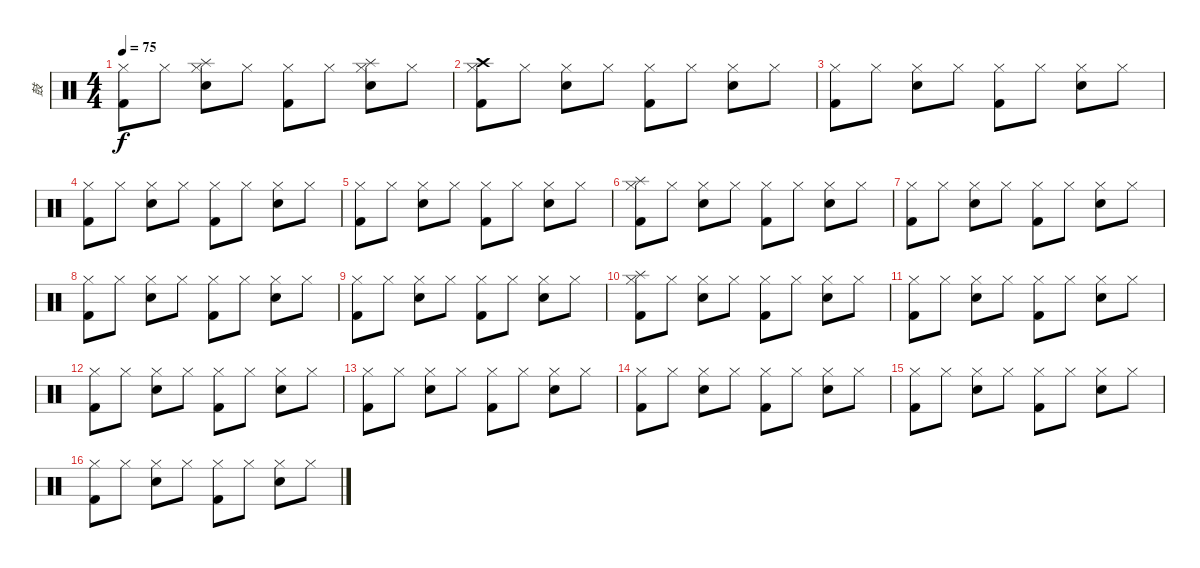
\track ("鼓" "鼓") {instrument percussion}
\staff {score}
\articulation defaults
\ts (4 4)
\tempo 75
\clef neutral
\ks c
("Hi-Hat (closed)" "Kick (hit) 2").8{dy f} "Hi-Hat (closed)".8 ("Hi-Hat (closed)" "Splash (hit)" "Electric Snare (hit)").8 "Hi-Hat (closed)".8 ("Hi-Hat (closed)" "Kick (hit) 2").8 "Hi-Hat (closed)".8 ("Hi-Hat (closed)" "Splash (hit)" "Electric Snare (hit)").8 "Hi-Hat (closed)".8 |
("Hi-Hat (closed)" "Crash high (hit)" "Kick (hit) 2").8 "Hi-Hat (closed)".8 ("Hi-Hat (closed)" "Electric Snare (hit)").8 "Hi-Hat (closed)".8 ("Hi-Hat (closed)" "Kick (hit) 2").8 "Hi-Hat (closed)".8 ("Hi-Hat (closed)" "Electric Snare (hit)").8 "Hi-Hat (closed)".8 |
("Hi-Hat (closed)" "Kick (hit) 2").8 "Hi-Hat (closed)".8 ("Hi-Hat (closed)" "Electric Snare (hit)").8 "Hi-Hat (closed)".8 ("Hi-Hat (closed)" "Kick (hit) 2").8 "Hi-Hat (closed)".8 ("Hi-Hat (closed)" "Electric Snare (hit)").8 "Hi-Hat (closed)".8 |
("Hi-Hat (closed)" "Kick (hit) 2").8 "Hi-Hat (closed)".8 ("Hi-Hat (closed)" "Electric Snare (hit)").8 "Hi-Hat (closed)".8 ("Hi-Hat (closed)" "Kick (hit) 2").8 "Hi-Hat (closed)".8 ("Hi-Hat (closed)" "Electric Snare (hit)").8 "Hi-Hat (closed)".8 |
("Hi-Hat (closed)" "Kick (hit) 2").8 "Hi-Hat (closed)".8 ("Hi-Hat (closed)" "Electric Snare (hit)").8 "Hi-Hat (closed)".8 ("Hi-Hat (closed)" "Kick (hit) 2").8 "Hi-Hat (closed)".8 ("Hi-Hat (closed)" "Electric Snare (hit)").8 "Hi-Hat (closed)".8 |
("Hi-Hat (closed)" "Splash (hit)" "Kick (hit) 2").8 "Hi-Hat (closed)".8 ("Hi-Hat (closed)" "Electric Snare (hit)").8 "Hi-Hat (closed)".8 ("Hi-Hat (closed)" "Kick (hit) 2").8 "Hi-Hat (closed)".8 ("Hi-Hat (closed)" "Electric Snare (hit)").8 "Hi-Hat (closed)".8 |
("Hi-Hat (closed)" "Kick (hit) 2").8 "Hi-Hat (closed)".8 ("Hi-Hat (closed)" "Electric Snare (hit)").8 "Hi-Hat (closed)".8 ("Hi-Hat (closed)" "Kick (hit) 2").8 "Hi-Hat (closed)".8 ("Hi-Hat (closed)" "Electric Snare (hit)").8 "Hi-Hat (closed)".8 |
("Hi-Hat (closed)" "Kick (hit) 2").8 "Hi-Hat (closed)".8 ("Hi-Hat (closed)" "Electric Snare (hit)").8 "Hi-Hat (closed)".8 ("Hi-Hat (closed)" "Kick (hit) 2").8 "Hi-Hat (closed)".8 ("Hi-Hat (closed)" "Electric Snare (hit)").8 "Hi-Hat (closed)".8 |
("Hi-Hat (closed)" "Kick (hit) 2").8 "Hi-Hat (closed)".8 ("Hi-Hat (closed)" "Electric Snare (hit)").8 "Hi-Hat (closed)".8 ("Hi-Hat (closed)" "Kick (hit) 2").8 "Hi-Hat (closed)".8 ("Hi-Hat (closed)" "Electric Snare (hit)").8 "Hi-Hat (closed)".8 |
("Hi-Hat (closed)" "Splash (hit)" "Kick (hit) 2").8 "Hi-Hat (closed)".8 ("Hi-Hat (closed)" "Electric Snare (hit)").8 "Hi-Hat (closed)".8 ("Hi-Hat (closed)" "Kick (hit) 2").8 "Hi-Hat (closed)".8 ("Hi-Hat (closed)" "Electric Snare (hit)").8 "Hi-Hat (closed)".8 |
("Hi-Hat (closed)" "Kick (hit) 2").8 "Hi-Hat (closed)".8 ("Hi-Hat (closed)" "Electric Snare (hit)").8 "Hi-Hat (closed)".8 ("Hi-Hat (closed)" "Kick (hit) 2").8 "Hi-Hat (closed)".8 ("Hi-Hat (closed)" "Electric Snare (hit)").8 "Hi-Hat (closed)".8 |
("Hi-Hat (closed)" "Kick (hit) 2").8 "Hi-Hat (closed)".8 ("Hi-Hat (closed)" "Electric Snare (hit)").8 "Hi-Hat (closed)".8 ("Hi-Hat (closed)" "Kick (hit) 2").8 "Hi-Hat (closed)".8 ("Hi-Hat (closed)" "Electric Snare (hit)").8 "Hi-Hat (closed)".8 |
("Hi-Hat (closed)" "Kick (hit) 2").8 "Hi-Hat (closed)".8 ("Hi-Hat (closed)" "Electric Snare (hit)").8 "Hi-Hat (closed)".8 ("Hi-Hat (closed)" "Kick (hit) 2").8 "Hi-Hat (closed)".8 ("Hi-Hat (closed)" "Electric Snare (hit)").8 "Hi-Hat (closed)".8 |
("Hi-Hat (closed)" "Kick (hit) 2").8 "Hi-Hat (closed)".8 ("Hi-Hat (closed)" "Electric Snare (hit)").8 "Hi-Hat (closed)".8 ("Hi-Hat (closed)" "Kick (hit) 2").8 "Hi-Hat (closed)".8 ("Hi-Hat (closed)" "Electric Snare (hit)").8 "Hi-Hat (closed)".8 |
("Hi-Hat (closed)" "Kick (hit) 2").8 "Hi-Hat (closed)".8 ("Hi-Hat (closed)" "Electric Snare (hit)").8 "Hi-Hat (closed)".8 ("Hi-Hat (closed)" "Kick (hit) 2").8 "Hi-Hat (closed)".8 ("Hi-Hat (closed)" "Electric Snare (hit)").8 "Hi-Hat (closed)".8 |
("Hi-Hat (closed)" "Kick (hit) 2").8 "Hi-Hat (closed)".8 ("Hi-Hat (closed)" "Electric Snare (hit)").8 "Hi-Hat (closed)".8 ("Hi-Hat (closed)" "Kick (hit) 2").8 "Hi-Hat (closed)".8 ("Hi-Hat (closed)" "Electric Snare (hit)").8 "Hi-Hat (closed)".8
